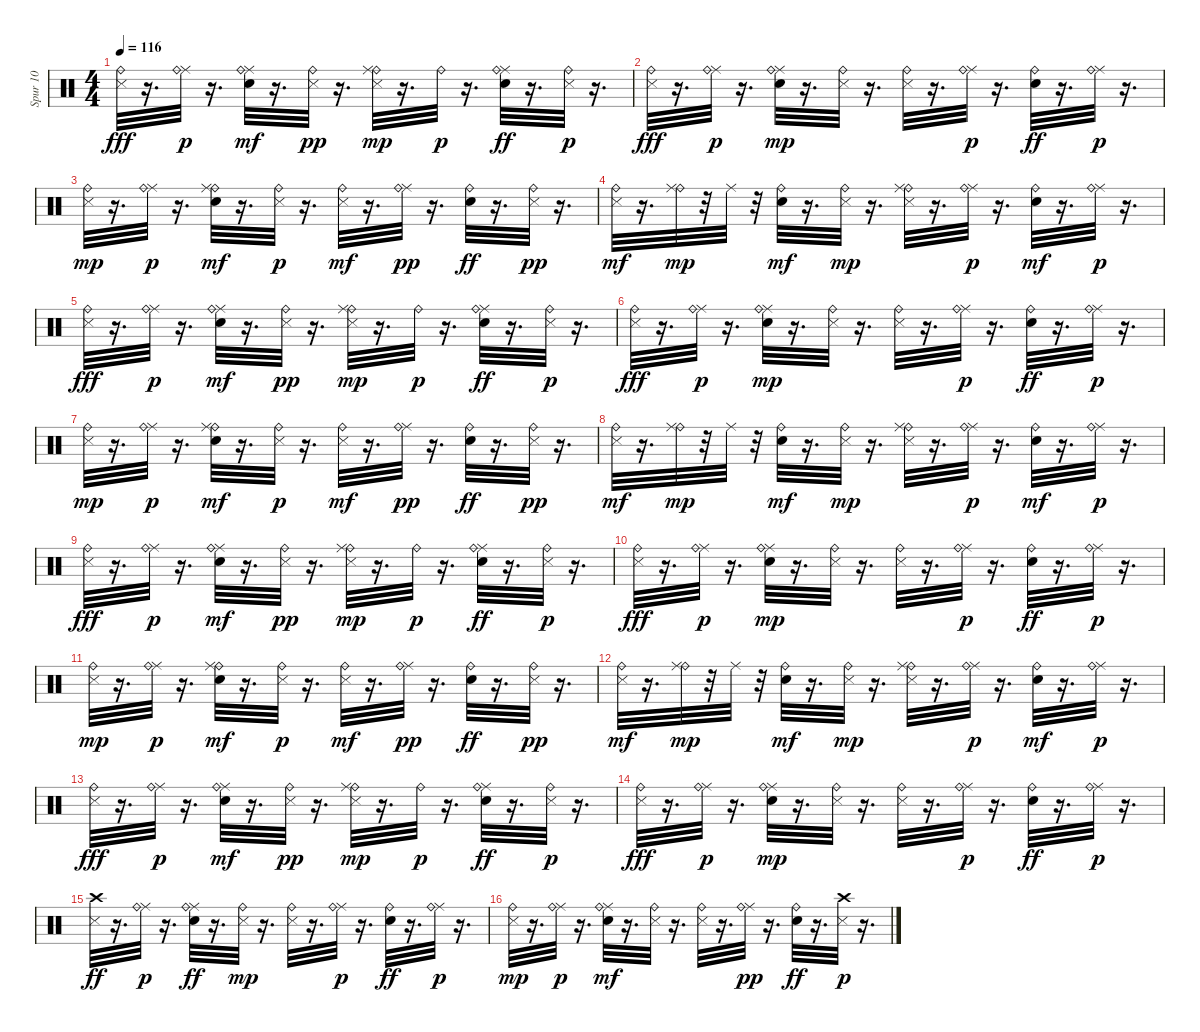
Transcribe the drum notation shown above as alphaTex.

\track ("Spur 10" "Spur 10") {instrument percussion}
\staff {score}
\articulation defaults
\ts (4 4)
\tempo 116
\clef neutral
\ks c
("Metronome (hit)" "Ride (bell)").32{dy fff} r.16{d} ("Ride (middle)" "Ride (bell)").32{dy p} r.16{d} ("Metronome (bell)" "Ride (middle)" "Ride (bell)").32{dy mf} r.16{d} ("Metronome (hit)" "Ride (bell)").32{dy pp} r.16{d} ("Metronome (hit)" "Ride (bell)" "Ride (middle)").32{dy mp} r.16{d} "Ride (bell)".32{dy p} r.16{d} ("Ride (middle)" "Metronome (bell)" "Ride (bell)").32{dy ff} r.16{d} ("Metronome (hit)" "Ride (bell)").32{dy p} r.16{d} |
("Metronome (hit)" "Ride (bell)").32{dy fff} r.16{d} ("Ride (middle)" "Ride (bell)").32{dy p} r.16{d} ("Metronome (bell)" "Ride (middle)" "Ride (bell)").32{dy mp} r.16{d} ("Metronome (hit)" "Ride (bell)").32 r.16{d} ("Metronome (hit)" "Ride (bell)").32 r.16{d} ("Ride (middle)" "Ride (bell)").32{dy p} r.16{d} ("Metronome (bell)" "Ride (bell)").32{dy ff} r.16{d} ("Ride (middle)" "Ride (bell)").32{dy p} r.16{d} |
("Metronome (hit)" "Ride (bell)").32{dy mp} r.16{d} ("Ride (middle)" "Ride (bell)").32{dy p} r.16{d} ("Metronome (bell)" "Ride (bell)" "Ride (middle)").32{dy mf} r.16{d} ("Metronome (hit)" "Ride (bell)").32{dy p} r.16{d} ("Metronome (hit)" "Ride (bell)").32{dy mf} r.16{d} ("Ride (middle)" "Ride (bell)").32{dy pp} r.16{d} ("Metronome (bell)" "Ride (bell)").32{dy ff} r.16{d} ("Metronome (hit)" "Ride (bell)").32{dy pp} r.16{d} |
("Metronome (hit)" "Ride (bell)").32{dy mf} r.16{d} ("Ride (bell)" "Ride (middle)").32{dy mp} r.32 "Ride (middle)".32 r.32 ("Metronome (bell)" "Ride (bell)").32{dy mf} r.16{d} ("Metronome (hit)" "Ride (bell)").32{dy mp} r.16{d} ("Metronome (hit)" "Ride (bell)" "Ride (middle)").32 r.16{d} ("Ride (middle)" "Ride (bell)").32{dy p} r.16{d} ("Metronome (bell)" "Ride (bell)").32{dy mf} r.16{d} ("Ride (middle)" "Ride (bell)").32{dy p} r.16{d} |
("Metronome (hit)" "Ride (bell)").32{dy fff} r.16{d} ("Ride (middle)" "Ride (bell)").32{dy p} r.16{d} ("Metronome (bell)" "Ride (middle)" "Ride (bell)").32{dy mf} r.16{d} ("Metronome (hit)" "Ride (bell)").32{dy pp} r.16{d} ("Metronome (hit)" "Ride (bell)" "Ride (middle)").32{dy mp} r.16{d} "Ride (bell)".32{dy p} r.16{d} ("Ride (middle)" "Metronome (bell)" "Ride (bell)").32{dy ff} r.16{d} ("Metronome (hit)" "Ride (bell)").32{dy p} r.16{d} |
("Metronome (hit)" "Ride (bell)").32{dy fff} r.16{d} ("Ride (middle)" "Ride (bell)").32{dy p} r.16{d} ("Metronome (bell)" "Ride (middle)" "Ride (bell)").32{dy mp} r.16{d} ("Metronome (hit)" "Ride (bell)").32 r.16{d} ("Metronome (hit)" "Ride (bell)").32 r.16{d} ("Ride (middle)" "Ride (bell)").32{dy p} r.16{d} ("Metronome (bell)" "Ride (bell)").32{dy ff} r.16{d} ("Ride (middle)" "Ride (bell)").32{dy p} r.16{d} |
("Metronome (hit)" "Ride (bell)").32{dy mp} r.16{d} ("Ride (middle)" "Ride (bell)").32{dy p} r.16{d} ("Metronome (bell)" "Ride (bell)" "Ride (middle)").32{dy mf} r.16{d} ("Metronome (hit)" "Ride (bell)").32{dy p} r.16{d} ("Metronome (hit)" "Ride (bell)").32{dy mf} r.16{d} ("Ride (middle)" "Ride (bell)").32{dy pp} r.16{d} ("Metronome (bell)" "Ride (bell)").32{dy ff} r.16{d} ("Metronome (hit)" "Ride (bell)").32{dy pp} r.16{d} |
("Metronome (hit)" "Ride (bell)").32{dy mf} r.16{d} ("Ride (bell)" "Ride (middle)").32{dy mp} r.32 "Ride (middle)".32 r.32 ("Metronome (bell)" "Ride (bell)").32{dy mf} r.16{d} ("Metronome (hit)" "Ride (bell)").32{dy mp} r.16{d} ("Metronome (hit)" "Ride (bell)" "Ride (middle)").32 r.16{d} ("Ride (middle)" "Ride (bell)").32{dy p} r.16{d} ("Metronome (bell)" "Ride (bell)").32{dy mf} r.16{d} ("Ride (middle)" "Ride (bell)").32{dy p} r.16{d} |
("Metronome (hit)" "Ride (bell)").32{dy fff} r.16{d} ("Ride (middle)" "Ride (bell)").32{dy p} r.16{d} ("Metronome (bell)" "Ride (middle)" "Ride (bell)").32{dy mf} r.16{d} ("Metronome (hit)" "Ride (bell)").32{dy pp} r.16{d} ("Metronome (hit)" "Ride (bell)" "Ride (middle)").32{dy mp} r.16{d} "Ride (bell)".32{dy p} r.16{d} ("Ride (middle)" "Metronome (bell)" "Ride (bell)").32{dy ff} r.16{d} ("Metronome (hit)" "Ride (bell)").32{dy p} r.16{d} |
("Metronome (hit)" "Ride (bell)").32{dy fff} r.16{d} ("Ride (middle)" "Ride (bell)").32{dy p} r.16{d} ("Metronome (bell)" "Ride (middle)" "Ride (bell)").32{dy mp} r.16{d} ("Metronome (hit)" "Ride (bell)").32 r.16{d} ("Metronome (hit)" "Ride (bell)").32 r.16{d} ("Ride (middle)" "Ride (bell)").32{dy p} r.16{d} ("Metronome (bell)" "Ride (bell)").32{dy ff} r.16{d} ("Ride (middle)" "Ride (bell)").32{dy p} r.16{d} |
("Metronome (hit)" "Ride (bell)").32{dy mp} r.16{d} ("Ride (middle)" "Ride (bell)").32{dy p} r.16{d} ("Metronome (bell)" "Ride (bell)" "Ride (middle)").32{dy mf} r.16{d} ("Metronome (hit)" "Ride (bell)").32{dy p} r.16{d} ("Metronome (hit)" "Ride (bell)").32{dy mf} r.16{d} ("Ride (middle)" "Ride (bell)").32{dy pp} r.16{d} ("Metronome (bell)" "Ride (bell)").32{dy ff} r.16{d} ("Metronome (hit)" "Ride (bell)").32{dy pp} r.16{d} |
("Metronome (hit)" "Ride (bell)").32{dy mf} r.16{d} ("Ride (bell)" "Ride (middle)").32{dy mp} r.32 "Ride (middle)".32 r.32 ("Metronome (bell)" "Ride (bell)").32{dy mf} r.16{d} ("Metronome (hit)" "Ride (bell)").32{dy mp} r.16{d} ("Metronome (hit)" "Ride (bell)" "Ride (middle)").32 r.16{d} ("Ride (middle)" "Ride (bell)").32{dy p} r.16{d} ("Metronome (bell)" "Ride (bell)").32{dy mf} r.16{d} ("Ride (middle)" "Ride (bell)").32{dy p} r.16{d} |
("Metronome (hit)" "Ride (bell)").32{dy fff} r.16{d} ("Ride (middle)" "Ride (bell)").32{dy p} r.16{d} ("Metronome (bell)" "Ride (middle)" "Ride (bell)").32{dy mf} r.16{d} ("Metronome (hit)" "Ride (bell)").32{dy pp} r.16{d} ("Metronome (hit)" "Ride (bell)" "Ride (middle)").32{dy mp} r.16{d} "Ride (bell)".32{dy p} r.16{d} ("Ride (middle)" "Metronome (bell)" "Ride (bell)").32{dy ff} r.16{d} ("Metronome (hit)" "Ride (bell)").32{dy p} r.16{d} |
("Metronome (hit)" "Ride (bell)").32{dy fff} r.16{d} ("Ride (middle)" "Ride (bell)").32{dy p} r.16{d} ("Metronome (bell)" "Ride (middle)" "Ride (bell)").32{dy mp} r.16{d} ("Metronome (hit)" "Ride (bell)").32 r.16{d} ("Metronome (hit)" "Ride (bell)").32 r.16{d} ("Ride (middle)" "Ride (bell)").32{dy p} r.16{d} ("Metronome (bell)" "Ride (bell)").32{dy ff} r.16{d} ("Ride (middle)" "Ride (bell)").32{dy p} r.16{d} |
("Metronome (hit)" "Crash high (hit)").32{dy ff} r.16{d} ("Ride (middle)" "Ride (bell)").32{dy p} r.16{d} ("Ride (middle)" "Ride (bell)" "Metronome (bell)").32{dy ff} r.16{d} ("Metronome (hit)" "Ride (bell)").32{dy mp} r.16{d} ("Metronome (hit)" "Ride (bell)").32 r.16{d} ("Ride (middle)" "Ride (bell)").32{dy p} r.16{d} ("Metronome (bell)" "Ride (bell)").32{dy ff} r.16{d} ("Ride (middle)" "Ride (bell)").32{dy p} r.16{d} |
("Metronome (hit)" "Ride (bell)").32{dy mp} r.16{d} ("Ride (middle)" "Ride (bell)").32{dy p} r.16{d} ("Metronome (bell)" "Ride (middle)" "Ride (bell)").32{dy mf} r.16{d} ("Ride (bell)" "Metronome (hit)").32 r.16{d} ("Metronome (hit)" "Ride (bell)").32 r.16{d} ("Ride (middle)" "Ride (bell)").32{dy pp} r.16{d} ("Metronome (bell)" "Ride (bell)").32{dy ff} r.16{d} ("Metronome (hit)" "Crash high (hit)").32{dy p} r.16{d}
